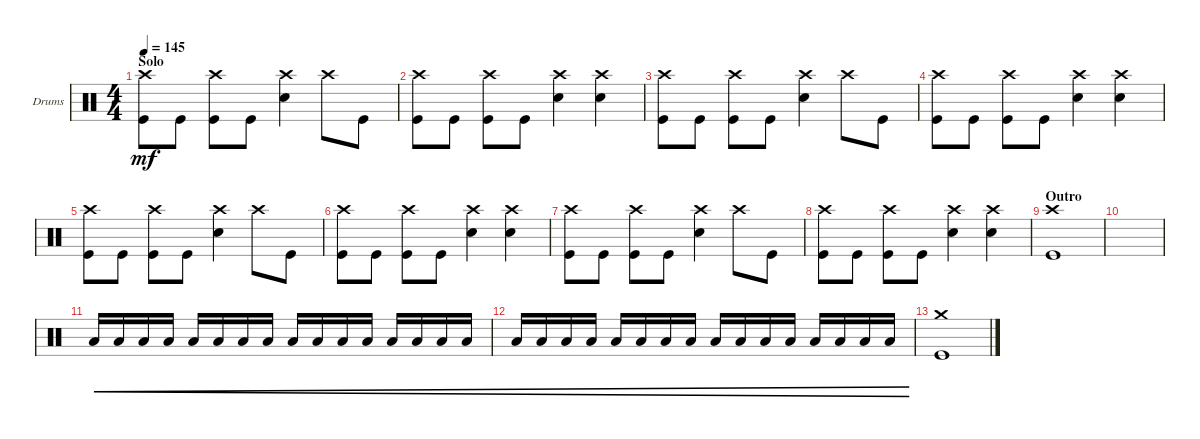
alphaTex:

\defaultSystemsLayout 4
\bracketExtendMode groupsimilarinstruments
\firstSystemTrackNameOrientation horizontal
\otherSystemsTrackNameOrientation horizontal
\track ("Matt Uychich" "Drums") {instrument percussion}
\staff {score}
\articulation defaults
\ts (4 4)
\section ("" "Solo")
\tempo 145
\clef neutral
\scale
0.333333
\ks c
("Crash high (hit)" "Kick (hit)").8{dy mf} "Kick (hit)".8 ("Kick (hit)" "Crash high (hit)").8 "Kick (hit)".8 ("Snare (hit) 2" "Crash high (hit)").4 "Crash high (hit)".8 "Kick (hit)".8 |
\scale
0.333333 ("Kick (hit)" "Crash high (hit)").8 "Kick (hit)".8 ("Kick (hit)" "Crash high (hit)").8 "Kick (hit)".8 ("Crash high (hit)" "Snare (hit) 2").4 ("Crash high (hit)" "Snare (hit) 2").4 |
\scale
0.333333 ("Crash high (hit)" "Kick (hit)").8 "Kick (hit)".8 ("Kick (hit)" "Crash high (hit)").8 "Kick (hit)".8 ("Snare (hit) 2" "Crash high (hit)").4 "Crash high (hit)".8 "Kick (hit)".8 |
\scale
0.333333 ("Kick (hit)" "Crash high (hit)").8 "Kick (hit)".8 ("Kick (hit)" "Crash high (hit)").8 "Kick (hit)".8 ("Crash high (hit)" "Snare (hit) 2").4 ("Crash high (hit)" "Snare (hit) 2").4 |
\scale
0.333333 ("Crash high (hit)" "Kick (hit)").8 "Kick (hit)".8 ("Kick (hit)" "Crash high (hit)").8 "Kick (hit)".8 ("Snare (hit) 2" "Crash high (hit)").4 "Crash high (hit)".8 "Kick (hit)".8 |
\scale
0.333333 ("Kick (hit)" "Crash high (hit)").8 "Kick (hit)".8 ("Kick (hit)" "Crash high (hit)").8 "Kick (hit)".8 ("Crash high (hit)" "Snare (hit) 2").4 ("Crash high (hit)" "Snare (hit) 2").4 |
\scale
0.333333 ("Crash high (hit)" "Kick (hit)").8 "Kick (hit)".8 ("Kick (hit)" "Crash high (hit)").8 "Kick (hit)".8 ("Snare (hit) 2" "Crash high (hit)").4 "Crash high (hit)".8 "Kick (hit)".8 |
\scale
0.333333 ("Kick (hit)" "Crash high (hit)").8 "Kick (hit)".8 ("Kick (hit)" "Crash high (hit)").8 "Kick (hit)".8 ("Crash high (hit)" "Snare (hit) 2").4 ("Crash high (hit)" "Snare (hit) 2").4 |
\section ("" "Outro")
\scale
0.333333 ("Crash high (hit)" "Kick (hit)").1 |
\scale
0.333333 |
\scale
0.333333 "Low Tom (hit)".16{cre} "Low Tom (hit)".16{cre} "Low Tom (hit)".16{cre} "Low Tom (hit)".16{cre} "Low Tom (hit)".16{cre} "Low Tom (hit)".16{cre} "Low Tom (hit)".16{cre} "Low Tom (hit)".16{cre} "Low Tom (hit)".16{cre} "Low Tom (hit)".16{cre} "Low Tom (hit)".16{cre} "Low Tom (hit)".16{cre} "Low Tom (hit)".16{cre} "Low Tom (hit)".16{cre} "Low Tom (hit)".16{cre} "Low Tom (hit)".16{cre} |
\scale
0.333333 "Low Tom (hit)".16{cre} "Low Tom (hit)".16{cre} "Low Tom (hit)".16{cre} "Low Tom (hit)".16{cre} "Low Tom (hit)".16{cre} "Low Tom (hit)".16{cre} "Low Tom (hit)".16{cre} "Low Tom (hit)".16{cre} "Low Tom (hit)".16{cre} "Low Tom (hit)".16{cre} "Low Tom (hit)".16{cre} "Low Tom (hit)".16{cre} "Low Tom (hit)".16{cre} "Low Tom (hit)".16{cre} "Low Tom (hit)".16{cre} "Low Tom (hit)".16{cre} |
("Kick (hit)" "Crash medium (hit)").1
